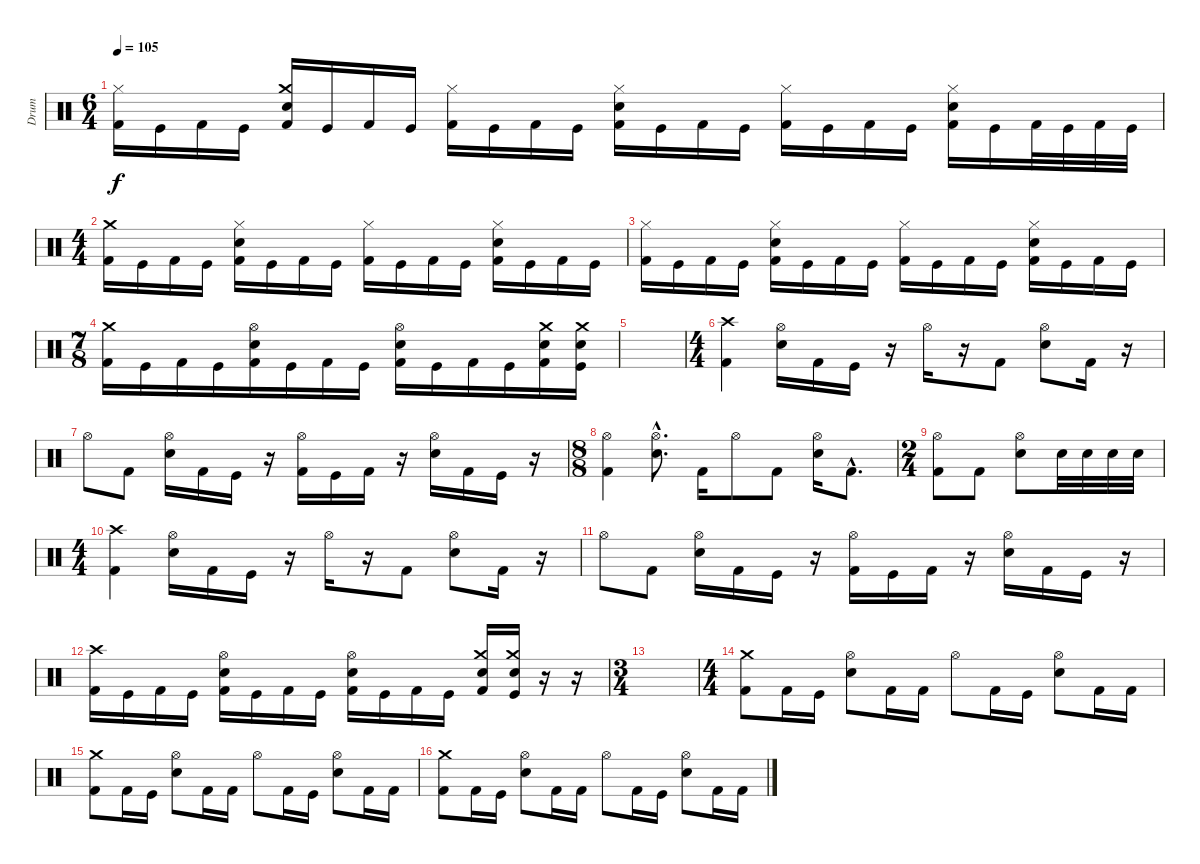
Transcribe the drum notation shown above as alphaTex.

\track ("Drum" "Drum") {instrument percussion}
\staff {score}
\articulation defaults
\ts (6 4)
\tempo 105
\clef neutral
\ks c
("Hi-Hat (closed)" "Kick (hit) 2").16{dy f} "Kick (hit)".16 "Kick (hit) 2".16 "Kick (hit)".16 ("Crash medium (hit)" "Snare (hit) 2" "Kick (hit) 2").16 "Kick (hit)".16 "Kick (hit) 2".16 "Kick (hit)".16 ("Hi-Hat (closed)" "Kick (hit) 2").16 "Kick (hit)".16 "Kick (hit) 2".16 "Kick (hit)".16 ("Hi-Hat (closed)" "Snare (hit) 2" "Kick (hit) 2").16 "Kick (hit)".16 "Kick (hit) 2".16 "Kick (hit)".16 ("Hi-Hat (closed)" "Kick (hit) 2").16 "Kick (hit)".16 "Kick (hit) 2".16 "Kick (hit)".16 ("Hi-Hat (closed)" "Snare (hit) 2" "Kick (hit) 2").16 "Kick (hit)".16 "Kick (hit) 2".32 "Kick (hit)".32 "Kick (hit) 2".32 "Kick (hit)".32 |
\ts (4 4)
("Crash medium (hit)" "Kick (hit) 2").16 "Kick (hit)".16 "Kick (hit) 2".16 "Kick (hit)".16 ("Hi-Hat (closed)" "Snare (hit) 2" "Kick (hit) 2").16 "Kick (hit)".16 "Kick (hit) 2".16 "Kick (hit)".16 ("Hi-Hat (closed)" "Kick (hit) 2").16 "Kick (hit)".16 "Kick (hit) 2".16 "Kick (hit)".16 ("Hi-Hat (closed)" "Snare (hit) 2" "Kick (hit) 2").16 "Kick (hit)".16 "Kick (hit) 2".16 "Kick (hit)".16 |
("Hi-Hat (closed)" "Kick (hit) 2").16 "Kick (hit)".16 "Kick (hit) 2".16 "Kick (hit)".16 ("Hi-Hat (closed)" "Snare (hit) 2" "Kick (hit) 2").16 "Kick (hit)".16 "Kick (hit) 2".16 "Kick (hit)".16 ("Hi-Hat (closed)" "Kick (hit) 2").16 "Kick (hit)".16 "Kick (hit) 2".16 "Kick (hit)".16 ("Hi-Hat (closed)" "Snare (hit) 2" "Kick (hit) 2").16 "Kick (hit)".16 "Kick (hit) 2".16 "Kick (hit)".16 |
\ts (7 8)
("Crash medium (hit)" "Kick (hit) 2").16 "Kick (hit)".16 "Kick (hit) 2".16 "Kick (hit)".16 ("Hi-Hat (open)" "Snare (hit) 2" "Kick (hit) 2").16 "Kick (hit)".16 "Kick (hit) 2".16 "Kick (hit)".16 ("Hi-Hat (open)" "Snare (hit) 2" "Kick (hit) 2").16 "Kick (hit)".16 "Kick (hit) 2".16 "Kick (hit)".16 ("Crash medium (hit)" "Snare (hit) 2" "Kick (hit) 2").16 ("Crash medium (hit)" "Snare (hit) 2" "Kick (hit)").16 |
|
\ts (4 4)
("Crash high (hit)" "Kick (hit) 2").4 ("Hi-Hat (open)" "Snare (hit) 2").16 "Kick (hit) 2".16 "Kick (hit)".16 r.16 "Hi-Hat (open)".16 r.16 "Kick (hit) 2".8 ("Hi-Hat (open)" "Snare (hit) 2").8 "Kick (hit) 2".16 r.16 |
"Hi-Hat (open)".8 "Kick (hit) 2".8 ("Hi-Hat (open)" "Snare (hit) 2").16 "Kick (hit) 2".16 "Kick (hit)".16 r.16 ("Hi-Hat (open)" "Kick (hit) 2").16 "Kick (hit)".16 "Kick (hit) 2".16 r.16 ("Hi-Hat (open)" "Snare (hit) 2").16 "Kick (hit) 2".16 "Kick (hit)".16 r.16 |
\ts (8 8)
("Hi-Hat (open)" "Kick (hit) 2").4 ("Hi-Hat (open)"{hac} "Snare (hit) 2"{hac}).8{d} "Kick (hit) 2".16 "Hi-Hat (open)".8 "Kick (hit) 2".8 ("Hi-Hat (open)" "Snare (hit) 2").16 "Kick (hit) 2"{hac}.8{d} |
\ts (2 4)
("Hi-Hat (open)" "Kick (hit) 2").8 "Kick (hit) 2".8 ("Hi-Hat (open)" "Snare (hit) 2").8 "Snare (hit) 2".32 "Snare (hit) 2".32 "Snare (hit) 2".32 "Snare (hit) 2".32 |
\ts (4 4)
("Crash high (hit)" "Kick (hit) 2").4 ("Hi-Hat (open)" "Snare (hit) 2").16 "Kick (hit) 2".16 "Kick (hit)".16 r.16 "Hi-Hat (open)".16 r.16 "Kick (hit) 2".8 ("Hi-Hat (open)" "Snare (hit) 2").8 "Kick (hit) 2".16 r.16 |
"Hi-Hat (open)".8 "Kick (hit) 2".8 ("Hi-Hat (open)" "Snare (hit) 2").16 "Kick (hit) 2".16 "Kick (hit)".16 r.16 ("Hi-Hat (open)" "Kick (hit) 2").16 "Kick (hit)".16 "Kick (hit) 2".16 r.16 ("Hi-Hat (open)" "Snare (hit) 2").16 "Kick (hit) 2".16 "Kick (hit)".16 r.16 |
("Crash high (hit)" "Kick (hit) 2").16 "Kick (hit)".16 "Kick (hit) 2".16 "Kick (hit)".16 ("Hi-Hat (open)" "Snare (hit) 2" "Kick (hit) 2").16 "Kick (hit)".16 "Kick (hit) 2".16 "Kick (hit)".16 ("Hi-Hat (open)" "Snare (hit) 2" "Kick (hit) 2").16 "Kick (hit)".16 "Kick (hit) 2".16 "Kick (hit)".16 ("Crash medium (hit)" "Snare (hit) 2" "Kick (hit) 2").16 ("Crash medium (hit)" "Snare (hit) 2" "Kick (hit)").16 r.16 r.16 |
\ts (3 4)
|
\ts (4 4)
("Crash medium (hit)" "Kick (hit) 2").8 "Kick (hit) 2".16 "Kick (hit)".16 ("Hi-Hat (open)" "Snare (hit) 2").8 "Kick (hit) 2".16 "Kick (hit) 2".16 "Hi-Hat (open)".8 "Kick (hit) 2".16 "Kick (hit)".16 ("Hi-Hat (open)" "Snare (hit) 2").8 "Kick (hit) 2".16 "Kick (hit) 2".16 |
("Crash medium (hit)" "Kick (hit) 2").8 "Kick (hit) 2".16 "Kick (hit)".16 ("Hi-Hat (open)" "Snare (hit) 2").8 "Kick (hit) 2".16 "Kick (hit) 2".16 "Hi-Hat (open)".8 "Kick (hit) 2".16 "Kick (hit)".16 ("Hi-Hat (open)" "Snare (hit) 2").8 "Kick (hit) 2".16 "Kick (hit) 2".16 |
("Crash medium (hit)" "Kick (hit) 2").8 "Kick (hit) 2".16 "Kick (hit)".16 ("Hi-Hat (open)" "Snare (hit) 2").8 "Kick (hit) 2".16 "Kick (hit) 2".16 "Hi-Hat (open)".8 "Kick (hit) 2".16 "Kick (hit)".16 ("Hi-Hat (open)" "Snare (hit) 2").8 "Kick (hit) 2".16 "Kick (hit) 2".16
